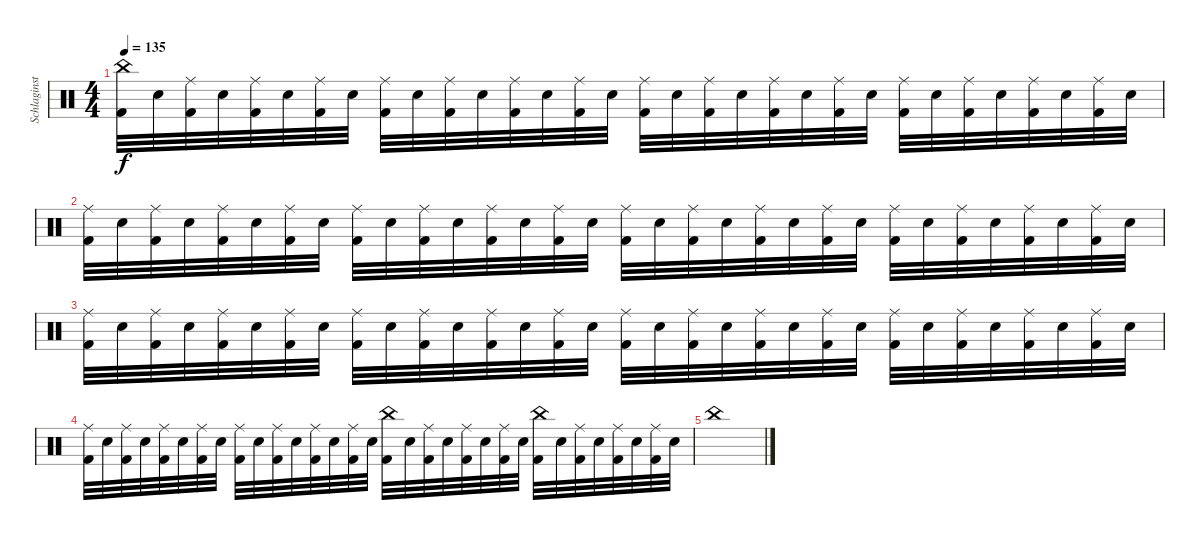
\track ("Schlaginstrumente - Auswahl" "Schlaginst") {instrument percussion}
\staff {score}
\articulation defaults
\ts (4 4)
\tempo 135
\clef neutral
\ks c
("China (hit)" "Kick (hit) 2").32{dy f} "Electric Snare (hit)".32 ("Ride (middle)" "Kick (hit) 2").32 "Electric Snare (hit)".32 ("Ride (middle)" "Kick (hit) 2").32 "Electric Snare (hit)".32 ("Ride (middle)" "Kick (hit) 2").32 "Electric Snare (hit)".32 ("Ride (middle)" "Kick (hit) 2").32 "Electric Snare (hit)".32 ("Ride (middle)" "Kick (hit) 2").32 "Electric Snare (hit)".32 ("Ride (middle)" "Kick (hit) 2").32 "Electric Snare (hit)".32 ("Ride (middle)" "Kick (hit) 2").32 "Electric Snare (hit)".32 ("Ride (middle)" "Kick (hit) 2").32 "Electric Snare (hit)".32 ("Ride (middle)" "Kick (hit) 2").32 "Electric Snare (hit)".32 ("Ride (middle)" "Kick (hit) 2").32 "Electric Snare (hit)".32 ("Ride (middle)" "Kick (hit) 2").32 "Electric Snare (hit)".32 ("Ride (middle)" "Kick (hit) 2").32 "Electric Snare (hit)".32 ("Ride (middle)" "Kick (hit) 2").32 "Electric Snare (hit)".32 ("Ride (middle)" "Kick (hit) 2").32 "Electric Snare (hit)".32 ("Ride (middle)" "Kick (hit) 2").32 "Electric Snare (hit)".32 |
("Ride (middle)" "Kick (hit) 2").32 "Electric Snare (hit)".32 ("Ride (middle)" "Kick (hit) 2").32 "Electric Snare (hit)".32 ("Ride (middle)" "Kick (hit) 2").32 "Electric Snare (hit)".32 ("Ride (middle)" "Kick (hit) 2").32 "Electric Snare (hit)".32 ("Ride (middle)" "Kick (hit) 2").32 "Electric Snare (hit)".32 ("Ride (middle)" "Kick (hit) 2").32 "Electric Snare (hit)".32 ("Ride (middle)" "Kick (hit) 2").32 "Electric Snare (hit)".32 ("Ride (middle)" "Kick (hit) 2").32 "Electric Snare (hit)".32 ("Ride (middle)" "Kick (hit) 2").32 "Electric Snare (hit)".32 ("Ride (middle)" "Kick (hit) 2").32 "Electric Snare (hit)".32 ("Ride (middle)" "Kick (hit) 2").32 "Electric Snare (hit)".32 ("Ride (middle)" "Kick (hit) 2").32 "Electric Snare (hit)".32 ("Ride (middle)" "Kick (hit) 2").32 "Electric Snare (hit)".32 ("Ride (middle)" "Kick (hit) 2").32 "Electric Snare (hit)".32 ("Ride (middle)" "Kick (hit) 2").32 "Electric Snare (hit)".32 ("Ride (middle)" "Kick (hit) 2").32 "Electric Snare (hit)".32 |
("Ride (middle)" "Kick (hit) 2").32 "Electric Snare (hit)".32 ("Ride (middle)" "Kick (hit) 2").32 "Electric Snare (hit)".32 ("Ride (middle)" "Kick (hit) 2").32 "Electric Snare (hit)".32 ("Ride (middle)" "Kick (hit) 2").32 "Electric Snare (hit)".32 ("Ride (middle)" "Kick (hit) 2").32 "Electric Snare (hit)".32 ("Ride (middle)" "Kick (hit) 2").32 "Electric Snare (hit)".32 ("Ride (middle)" "Kick (hit) 2").32 "Electric Snare (hit)".32 ("Ride (middle)" "Kick (hit) 2").32 "Electric Snare (hit)".32 ("Ride (middle)" "Kick (hit) 2").32 "Electric Snare (hit)".32 ("Ride (middle)" "Kick (hit) 2").32 "Electric Snare (hit)".32 ("Ride (middle)" "Kick (hit) 2").32 "Electric Snare (hit)".32 ("Ride (middle)" "Kick (hit) 2").32 "Electric Snare (hit)".32 ("Ride (middle)" "Kick (hit) 2").32 "Electric Snare (hit)".32 ("Ride (middle)" "Kick (hit) 2").32 "Electric Snare (hit)".32 ("Ride (middle)" "Kick (hit) 2").32 "Electric Snare (hit)".32 ("Ride (middle)" "Kick (hit) 2").32 "Electric Snare (hit)".32 |
("Ride (middle)" "Kick (hit) 2").32 "Electric Snare (hit)".32 ("Ride (middle)" "Kick (hit) 2").32 "Electric Snare (hit)".32 ("Ride (middle)" "Kick (hit) 2").32 "Electric Snare (hit)".32 ("Ride (middle)" "Kick (hit) 2").32 "Electric Snare (hit)".32 ("Ride (middle)" "Kick (hit) 2").32 "Electric Snare (hit)".32 ("Ride (middle)" "Kick (hit) 2").32 "Electric Snare (hit)".32 ("Ride (middle)" "Kick (hit) 2").32 "Electric Snare (hit)".32 ("Ride (middle)" "Kick (hit) 2").32 "Electric Snare (hit)".32 ("China (hit)" "Kick (hit) 2").32 "Electric Snare (hit)".32 ("Ride (middle)" "Kick (hit) 2").32 "Electric Snare (hit)".32 ("Ride (middle)" "Kick (hit) 2").32 "Electric Snare (hit)".32 ("Ride (middle)" "Kick (hit) 2").32 "Electric Snare (hit)".32 ("China (hit)" "Kick (hit) 2").32 "Electric Snare (hit)".32 ("Ride (middle)" "Kick (hit) 2").32 "Electric Snare (hit)".32 ("Ride (middle)" "Kick (hit) 2").32 "Electric Snare (hit)".32 ("Ride (middle)" "Kick (hit) 2").32 "Electric Snare (hit)".32 |
"China (hit)".1
